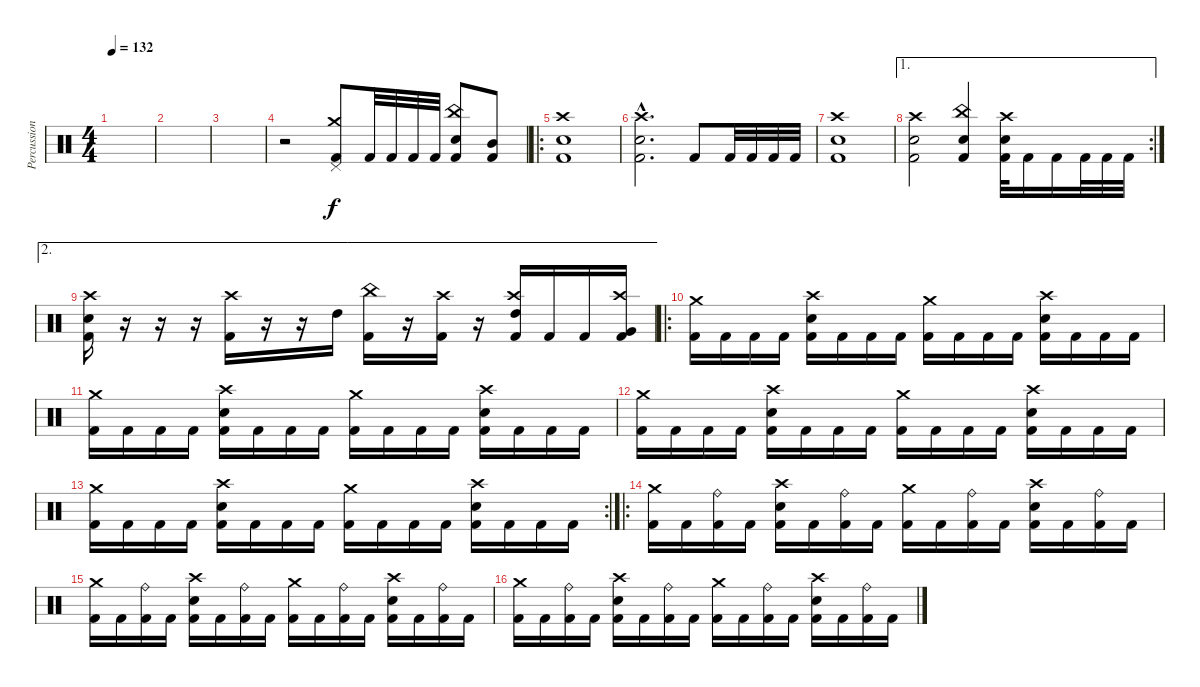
\track ("Percussion" "Percussion") {instrument percussion}
\staff {score}
\articulation defaults
\ts (4 4)
\tempo 132
\clef neutral
\ks c
|
|
|
r.2 ("Pedal Hi-Hat (hit)" "Crash medium (hit)" "Kick (hit) 2").8 "Kick (hit) 2".32 "Kick (hit) 2".32 "Kick (hit) 2".32 "Kick (hit) 2".32 ("China (hit)" "Snare (hit) 2" "Kick (hit) 2").8 ("Mid Tom (hit)" "Kick (hit) 2").8 |
\ro
("Crash high (hit)" "Snare (hit) 2" "Kick (hit) 2").1 |
("Crash high (hit)"{hac} "Snare (hit) 2"{hac} "Kick (hit) 2"{hac}).2{d} "Kick (hit) 2".8 "Kick (hit) 2".32 "Kick (hit) 2".32 "Kick (hit) 2".32 "Kick (hit) 2".32 |
("Crash high (hit)" "Snare (hit) 2" "Kick (hit) 2").1 |
\ae 1
\rc 2
("Crash high (hit)" "Snare (hit) 2" "Kick (hit) 2").2 ("China (hit)" "Snare (hit) 2" "Kick (hit) 2").4 ("Crash high (hit)" "Snare (hit) 2" "Kick (hit) 2").32 "Kick (hit) 2".16 "Kick (hit) 2".16 "Kick (hit) 2".32 "Kick (hit) 2".32 "Kick (hit) 2".32 |
\ae 2
("Crash high (hit)" "Snare (hit) 2" "Kick (hit) 2").16 r.16 r.16 r.16 ("Crash high (hit)" "Kick (hit) 2").16 r.16 r.16 "High Tom (hit)".16 ("China (hit)" "Kick (hit) 2").16 r.16 ("Crash high (hit)" "Kick (hit) 2").16 r.16 ("Crash high (hit)" "High Tom (hit)" "Kick (hit) 2").16 "Kick (hit) 2".16 "Kick (hit) 2".16 ("Crash high (hit)" "Very Low Tom (hit)" "Kick (hit) 2").16 |
\ro
("Crash medium (hit)" "Kick (hit) 2").16 "Kick (hit) 2".16 "Kick (hit) 2".16 "Kick (hit) 2".16 ("Crash high (hit)" "Snare (hit) 2" "Kick (hit) 2").16 "Kick (hit) 2".16 "Kick (hit) 2".16 "Kick (hit) 2".16 ("Crash medium (hit)" "Kick (hit) 2").16 "Kick (hit) 2".16 "Kick (hit) 2".16 "Kick (hit) 2".16 ("Crash high (hit)" "Snare (hit) 2" "Kick (hit) 2").16 "Kick (hit) 2".16 "Kick (hit) 2".16 "Kick (hit) 2".16 |
("Crash medium (hit)" "Kick (hit) 2").16 "Kick (hit) 2".16 "Kick (hit) 2".16 "Kick (hit) 2".16 ("Crash high (hit)" "Snare (hit) 2" "Kick (hit) 2").16 "Kick (hit) 2".16 "Kick (hit) 2".16 "Kick (hit) 2".16 ("Crash medium (hit)" "Kick (hit) 2").16 "Kick (hit) 2".16 "Kick (hit) 2".16 "Kick (hit) 2".16 ("Crash high (hit)" "Snare (hit) 2" "Kick (hit) 2").16 "Kick (hit) 2".16 "Kick (hit) 2".16 "Kick (hit) 2".16 |
("Crash medium (hit)" "Kick (hit) 2").16 "Kick (hit) 2".16 "Kick (hit) 2".16 "Kick (hit) 2".16 ("Crash high (hit)" "Snare (hit) 2" "Kick (hit) 2").16 "Kick (hit) 2".16 "Kick (hit) 2".16 "Kick (hit) 2".16 ("Crash medium (hit)" "Kick (hit) 2").16 "Kick (hit) 2".16 "Kick (hit) 2".16 "Kick (hit) 2".16 ("Crash high (hit)" "Snare (hit) 2" "Kick (hit) 2").16 "Kick (hit) 2".16 "Kick (hit) 2".16 "Kick (hit) 2".16 |
\rc 2
("Crash medium (hit)" "Kick (hit) 2").16 "Kick (hit) 2".16 "Kick (hit) 2".16 "Kick (hit) 2".16 ("Crash high (hit)" "Snare (hit) 2" "Kick (hit) 2").16 "Kick (hit) 2".16 "Kick (hit) 2".16 "Kick (hit) 2".16 ("Crash medium (hit)" "Kick (hit) 2").16 "Kick (hit) 2".16 "Kick (hit) 2".16 "Kick (hit) 2".16 ("Crash high (hit)" "Snare (hit) 2" "Kick (hit) 2").16 "Kick (hit) 2".16 "Kick (hit) 2".16 "Kick (hit) 2".16 |
\ro
("Crash medium (hit)" "Kick (hit) 2").16 "Kick (hit) 2".16 ("Ride (bell)" "Kick (hit) 2").16 "Kick (hit) 2".16 ("Crash high (hit)" "Snare (hit) 2" "Kick (hit) 2").16 "Kick (hit) 2".16 ("Ride (bell)" "Kick (hit) 2").16 "Kick (hit) 2".16 ("Crash medium (hit)" "Kick (hit) 2").16 "Kick (hit) 2".16 ("Ride (bell)" "Kick (hit) 2").16 "Kick (hit) 2".16 ("Crash high (hit)" "Snare (hit) 2" "Kick (hit) 2").16 "Kick (hit) 2".16 ("Ride (bell)" "Kick (hit) 2").16 "Kick (hit) 2".16 |
("Crash medium (hit)" "Kick (hit) 2").16 "Kick (hit) 2".16 ("Ride (bell)" "Kick (hit) 2").16 "Kick (hit) 2".16 ("Crash high (hit)" "Snare (hit) 2" "Kick (hit) 2").16 "Kick (hit) 2".16 ("Ride (bell)" "Kick (hit) 2").16 "Kick (hit) 2".16 ("Crash medium (hit)" "Kick (hit) 2").16 "Kick (hit) 2".16 ("Ride (bell)" "Kick (hit) 2").16 "Kick (hit) 2".16 ("Crash high (hit)" "Snare (hit) 2" "Kick (hit) 2").16 "Kick (hit) 2".16 ("Ride (bell)" "Kick (hit) 2").16 "Kick (hit) 2".16 |
("Crash medium (hit)" "Kick (hit) 2").16 "Kick (hit) 2".16 ("Ride (bell)" "Kick (hit) 2").16 "Kick (hit) 2".16 ("Crash high (hit)" "Snare (hit) 2" "Kick (hit) 2").16 "Kick (hit) 2".16 ("Ride (bell)" "Kick (hit) 2").16 "Kick (hit) 2".16 ("Crash medium (hit)" "Kick (hit) 2").16 "Kick (hit) 2".16 ("Ride (bell)" "Kick (hit) 2").16 "Kick (hit) 2".16 ("Crash high (hit)" "Snare (hit) 2" "Kick (hit) 2").16 "Kick (hit) 2".16 ("Ride (bell)" "Kick (hit) 2").16 "Kick (hit) 2".16
